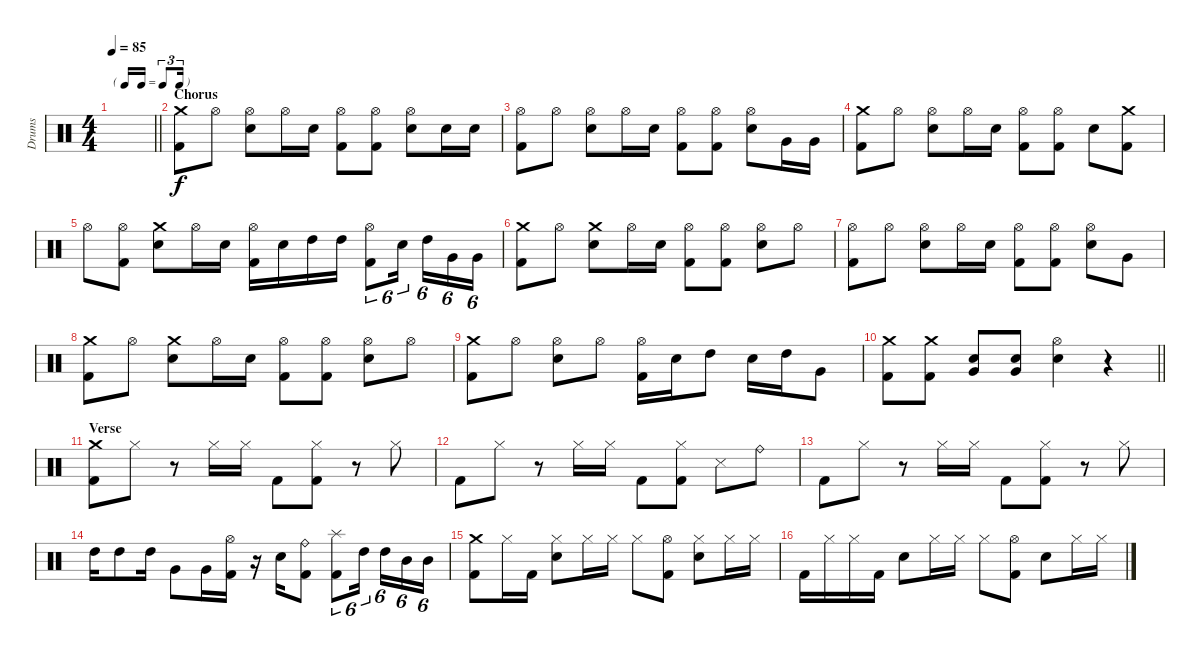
\track ("Drums" "Drums") {instrument percussion}
\staff {score}
\articulation defaults
\ts (4 4)
\tf triplet16th
\tempo 85
\clef neutral
\barLineRight lightlight
\ks c
|
\section ("" "Chorus")
("Crash medium (hit)" "Kick (hit) 2").8 "Hi-Hat (open)".8 ("Hi-Hat (open)" "Snare (hit) 2").8 "Hi-Hat (open)".16 "Snare (hit) 2".16 ("Hi-Hat (open)" "Kick (hit) 2").8 ("Hi-Hat (open)" "Kick (hit) 2").8 ("Hi-Hat (open)" "Snare (hit) 2").8 "Snare (hit) 2".16 "Snare (hit) 2".16 |
("Hi-Hat (open)" "Kick (hit) 2").8 "Hi-Hat (open)".8 ("Hi-Hat (open)" "Snare (hit) 2").8 "Hi-Hat (open)".16 "Snare (hit) 2".16 ("Hi-Hat (open)" "Kick (hit) 2").8 ("Hi-Hat (open)" "Kick (hit) 2").8 ("Hi-Hat (open)" "Snare (hit) 2").8 "Very Low Tom (hit)".16 "Very Low Tom (hit)".16 |
("Crash medium (hit)" "Kick (hit) 2").8 "Hi-Hat (open)".8 ("Hi-Hat (open)" "Snare (hit) 2").8 "Hi-Hat (open)".16 "Snare (hit) 2".16 ("Hi-Hat (open)" "Kick (hit) 2").8 ("Hi-Hat (open)" "Kick (hit) 2").8 "Snare (hit) 2".8 ("Crash medium (hit)" "Kick (hit) 2").8 |
"Hi-Hat (open)".8 ("Hi-Hat (open)" "Kick (hit) 2").8 ("Crash medium (hit)" "Snare (hit) 2").8 "Hi-Hat (open)".16 "Snare (hit) 2".16 ("Hi-Hat (open)" "Kick (hit) 2").16 "Snare (hit) 2".16 "High Tom (hit)".16 "High Tom (hit)".16 ("Hi-Hat (open)" "Kick (hit) 2").8{tu (6 4)} "Snare (hit) 2".16{tu (6 4) beam splitsecondary} "High Tom (hit)".16{tu (6 4)} "Very Low Tom (hit)".16{tu (6 4)} "Very Low Tom (hit)".16{tu (6 4)} |
("Crash medium (hit)" "Kick (hit) 2").8 "Hi-Hat (open)".8 ("Crash medium (hit)" "Snare (hit) 2").8 "Hi-Hat (open)".16 "Snare (hit) 2".16 ("Hi-Hat (open)" "Kick (hit) 2").8 ("Hi-Hat (open)" "Kick (hit) 2").8 ("Hi-Hat (open)" "Snare (hit) 2").8 "Hi-Hat (open)".8 |
("Hi-Hat (open)" "Kick (hit) 2").8 "Hi-Hat (open)".8 ("Hi-Hat (open)" "Snare (hit) 2").8 "Hi-Hat (open)".16 "Snare (hit) 2".16 ("Hi-Hat (open)" "Kick (hit) 2").8 ("Hi-Hat (open)" "Kick (hit) 2").8 ("Hi-Hat (open)" "Snare (hit) 2").8 "Very Low Tom (hit)".8 |
("Crash medium (hit)" "Kick (hit) 2").8 "Hi-Hat (open)".8 ("Crash medium (hit)" "Snare (hit) 2").8 "Hi-Hat (open)".16 "Snare (hit) 2".16 ("Hi-Hat (open)" "Kick (hit) 2").8 ("Hi-Hat (open)" "Kick (hit) 2").8 ("Hi-Hat (open)" "Snare (hit) 2").8 "Hi-Hat (open)".8 |
("Crash medium (hit)" "Kick (hit) 2").8 "Hi-Hat (open)".8 ("Hi-Hat (open)" "Snare (hit) 2").8 "Hi-Hat (open)".8 ("Hi-Hat (open)" "Kick (hit) 2").16 "Snare (hit) 2".16 "High Tom (hit)".8 "Snare (hit) 2".16 "High Tom (hit)".16 "Very Low Tom (hit)".8 |
\barLineRight lightlight
("Crash medium (hit)" "Kick (hit) 2").8 ("Crash medium (hit)" "Kick (hit) 2").8 ("Snare (hit) 2" "Very Low Tom (hit)").8 ("Snare (hit) 2" "Very Low Tom (hit)").8 ("Hi-Hat (open)" "Snare (hit) 2").4 r.4 |
\section ("" "Verse")
("Crash medium (hit)" "Kick (hit) 2").8 "Hi-Hat (closed)".8 r.8 "Hi-Hat (closed)".16 "Hi-Hat (closed)".16 "Kick (hit) 2".8 ("Hi-Hat (closed)" "Kick (hit) 2").8 r.8 "Hi-Hat (closed)".8 |
"Kick (hit) 2".8 "Hi-Hat (closed)".8 r.8 "Hi-Hat (closed)".16 "Hi-Hat (closed)".16 "Kick (hit) 2".8 ("Hi-Hat (closed)" "Kick (hit) 2").8 "Metronome (hit)".8 "Ride (bell)".8 |
"Kick (hit) 2".8 "Hi-Hat (closed)".8 r.8 "Hi-Hat (closed)".16 "Hi-Hat (closed)".16 "Kick (hit) 2".8 ("Hi-Hat (closed)" "Kick (hit) 2").8 r.8 "Hi-Hat (closed)".8 |
"High Tom (hit)".16 "High Tom (hit)".8 "High Tom (hit)".16 "Very Low Tom (hit)".8 "Very Low Tom (hit)".16 ("Hi-Hat (open)" "Kick (hit) 2").16 r.16 "Snare (hit) 2".16 ("Ride (bell)" "Kick (hit) 2").8 ("Splash (hit)" "Kick (hit) 2").8{tu (6 4)} "High Tom (hit)".16{tu (6 4) beam splitsecondary} "High Tom (hit)".16{tu (6 4)} "Mid Tom (hit)".16{tu (6 4)} "Mid Tom (hit)".16{tu (6 4)} |
("Crash medium (hit)" "Kick (hit) 2").8 "Hi-Hat (closed)".16 "Kick (hit) 2".16 ("Hi-Hat (closed)" "Snare (hit) 2").8 "Hi-Hat (closed)".16 "Hi-Hat (closed)".16 "Hi-Hat (closed)".8 ("Hi-Hat (open)" "Kick (hit) 2").8 ("Hi-Hat (closed)" "Snare (hit) 2").8 "Hi-Hat (closed)".16 "Hi-Hat (closed)".16 |
"Kick (hit) 2".16 "Hi-Hat (closed)".16 "Hi-Hat (closed)".16 "Kick (hit) 2".16 "Snare (hit) 2".8 "Hi-Hat (closed)".16 "Hi-Hat (closed)".16 "Hi-Hat (closed)".8 ("Hi-Hat (open)" "Kick (hit) 2").8 "Snare (hit) 2".8 "Hi-Hat (closed)".16 "Hi-Hat (closed)".16
